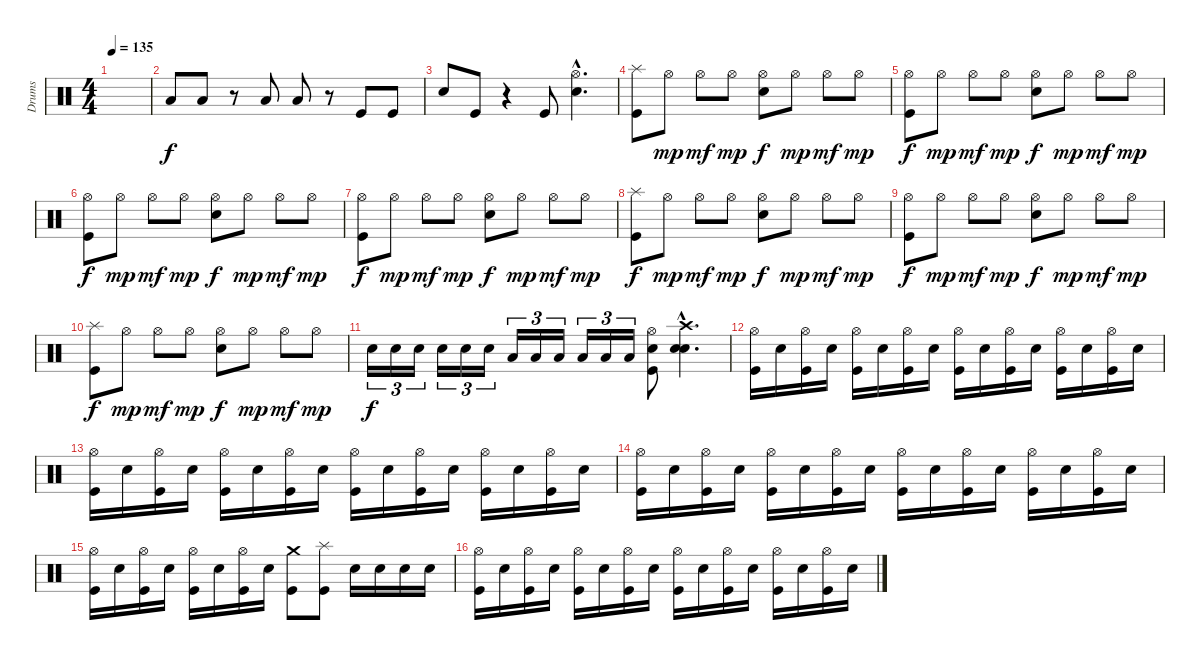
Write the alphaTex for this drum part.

\track ("Drums" "Drums") {instrument percussion}
\staff {score}
\articulation defaults
\ts (4 4)
\tempo 135
\clef neutral
\ks c
|
"Low Tom (hit)".8 "Low Tom (hit)".8 r.8 "Low Floor Tom (hit)".8 "Low Floor Tom (hit)".8 r.8 "Kick (hit)".8 "Kick (hit)".8 |
"Snare (hit) 2".8 "Kick (hit)".8 r.4 "Kick (hit)".8 ("Hi-Hat (open)"{hac} "Snare (hit) 2"{hac}).4{d} |
("Splash (hit)" "Kick (hit)").8 "Hi-Hat (open)".8{dy mp} "Hi-Hat (open)".8{dy mf} "Hi-Hat (open)".8{dy mp} ("Hi-Hat (open)" "Snare (hit) 2").8{dy f} "Hi-Hat (open)".8{dy mp} "Hi-Hat (open)".8{dy mf} "Hi-Hat (open)".8{dy mp} |
("Hi-Hat (open)" "Kick (hit)").8{dy f} "Hi-Hat (open)".8{dy mp} "Hi-Hat (open)".8{dy mf} "Hi-Hat (open)".8{dy mp} ("Hi-Hat (open)" "Snare (hit) 2").8{dy f} "Hi-Hat (open)".8{dy mp} "Hi-Hat (open)".8{dy mf} "Hi-Hat (open)".8{dy mp} |
("Hi-Hat (open)" "Kick (hit)").8{dy f} "Hi-Hat (open)".8{dy mp} "Hi-Hat (open)".8{dy mf} "Hi-Hat (open)".8{dy mp} ("Hi-Hat (open)" "Snare (hit) 2").8{dy f} "Hi-Hat (open)".8{dy mp} "Hi-Hat (open)".8{dy mf} "Hi-Hat (open)".8{dy mp} |
("Hi-Hat (open)" "Kick (hit)").8{dy f} "Hi-Hat (open)".8{dy mp} "Hi-Hat (open)".8{dy mf} "Hi-Hat (open)".8{dy mp} ("Hi-Hat (open)" "Snare (hit) 2").8{dy f} "Hi-Hat (open)".8{dy mp} "Hi-Hat (open)".8{dy mf} "Hi-Hat (open)".8{dy mp} |
("Splash (hit)" "Kick (hit)").8{dy f} "Hi-Hat (open)".8{dy mp} "Hi-Hat (open)".8{dy mf} "Hi-Hat (open)".8{dy mp} ("Hi-Hat (open)" "Snare (hit) 2").8{dy f} "Hi-Hat (open)".8{dy mp} "Hi-Hat (open)".8{dy mf} "Hi-Hat (open)".8{dy mp} |
("Hi-Hat (open)" "Kick (hit)").8{dy f} "Hi-Hat (open)".8{dy mp} "Hi-Hat (open)".8{dy mf} "Hi-Hat (open)".8{dy mp} ("Hi-Hat (open)" "Snare (hit) 2").8{dy f} "Hi-Hat (open)".8{dy mp} "Hi-Hat (open)".8{dy mf} "Hi-Hat (open)".8{dy mp} |
("Splash (hit)" "Kick (hit)").8{dy f} "Hi-Hat (open)".8{dy mp} "Hi-Hat (open)".8{dy mf} "Hi-Hat (open)".8{dy mp} ("Hi-Hat (open)" "Snare (hit) 2").8{dy f} "Hi-Hat (open)".8{dy mp} "Hi-Hat (open)".8{dy mf} "Hi-Hat (open)".8{dy mp} |
"Snare (hit) 2".16{tu (3 2) dy f} "Snare (hit) 2".16{tu (3 2)} "Snare (hit) 2".16{tu (3 2)} "Snare (hit) 2".16{tu (3 2)} "Snare (hit) 2".16{tu (3 2)} "Snare (hit) 2".16{tu (3 2)} "Low Tom (hit)".16{tu (3 2)} "Low Tom (hit)".16{tu (3 2)} "Low Tom (hit)".16{tu (3 2)} "Low Tom (hit)".16{tu (3 2)} "Low Tom (hit)".16{tu (3 2)} "Low Tom (hit)".16{tu (3 2)} ("Hi-Hat (open)" "Snare (hit) 2" "Kick (hit)").8 ("Crash high (hit)"{hac} "Snare (hit) 2"{hac} "Snare (hit) 2"{hac}).4{d} |
("Hi-Hat (open)" "Kick (hit)").16 "Snare (hit) 2".16 ("Hi-Hat (open)" "Kick (hit)").16 "Snare (hit) 2".16 ("Hi-Hat (open)" "Kick (hit)").16 "Snare (hit) 2".16 ("Hi-Hat (open)" "Kick (hit)").16 "Snare (hit) 2".16 ("Hi-Hat (open)" "Kick (hit)").16 "Snare (hit) 2".16 ("Hi-Hat (open)" "Kick (hit)").16 "Snare (hit) 2".16 ("Hi-Hat (open)" "Kick (hit)").16 "Snare (hit) 2".16 ("Hi-Hat (open)" "Kick (hit)").16 "Snare (hit) 2".16 |
("Hi-Hat (open)" "Kick (hit)").16 "Snare (hit) 2".16 ("Hi-Hat (open)" "Kick (hit)").16 "Snare (hit) 2".16 ("Hi-Hat (open)" "Kick (hit)").16 "Snare (hit) 2".16 ("Hi-Hat (open)" "Kick (hit)").16 "Snare (hit) 2".16 ("Hi-Hat (open)" "Kick (hit)").16 "Snare (hit) 2".16 ("Hi-Hat (open)" "Kick (hit)").16 "Snare (hit) 2".16 ("Hi-Hat (open)" "Kick (hit)").16 "Snare (hit) 2".16 ("Hi-Hat (open)" "Kick (hit)").16 "Snare (hit) 2".16 |
("Hi-Hat (open)" "Kick (hit)").16 "Snare (hit) 2".16 ("Hi-Hat (open)" "Kick (hit)").16 "Snare (hit) 2".16 ("Hi-Hat (open)" "Kick (hit)").16 "Snare (hit) 2".16 ("Hi-Hat (open)" "Kick (hit)").16 "Snare (hit) 2".16 ("Hi-Hat (open)" "Kick (hit)").16 "Snare (hit) 2".16 ("Hi-Hat (open)" "Kick (hit)").16 "Snare (hit) 2".16 ("Hi-Hat (open)" "Kick (hit)").16 "Snare (hit) 2".16 ("Hi-Hat (open)" "Kick (hit)").16 "Snare (hit) 2".16 |
("Hi-Hat (open)" "Kick (hit)").16 "Snare (hit) 2".16 ("Hi-Hat (open)" "Kick (hit)").16 "Snare (hit) 2".16 ("Hi-Hat (open)" "Kick (hit)").16 "Snare (hit) 2".16 ("Hi-Hat (open)" "Kick (hit)").16 "Snare (hit) 2".16 ("Crash medium (hit)" "Kick (hit)").8 ("Splash (hit)" "Kick (hit)").8 "Snare (hit) 2".16 "Snare (hit) 2".16 "Snare (hit) 2".16 "Snare (hit) 2".16 |
("Hi-Hat (open)" "Kick (hit)").16 "Snare (hit) 2".16 ("Hi-Hat (open)" "Kick (hit)").16 "Snare (hit) 2".16 ("Hi-Hat (open)" "Kick (hit)").16 "Snare (hit) 2".16 ("Hi-Hat (open)" "Kick (hit)").16 "Snare (hit) 2".16 ("Hi-Hat (open)" "Kick (hit)").16 "Snare (hit) 2".16 ("Hi-Hat (open)" "Kick (hit)").16 "Snare (hit) 2".16 ("Hi-Hat (open)" "Kick (hit)").16 "Snare (hit) 2".16 ("Hi-Hat (open)" "Kick (hit)").16 "Snare (hit) 2".16
